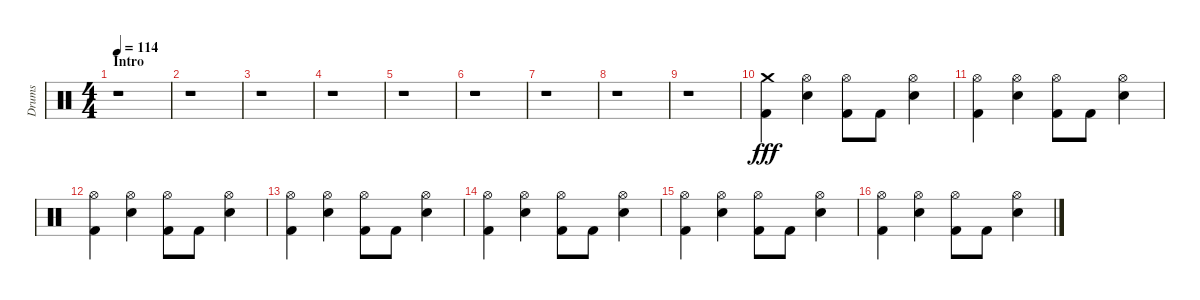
\track ("Drums" "Drums") {instrument percussion}
\staff {score}
\articulation defaults
\ts (4 4)
\section ("" "Intro")
\tempo 114
\clef neutral
\ks c
r.1{dy fff} |
r.1 |
r.1 |
r.1 |
r.1 |
r.1 |
r.1 |
r.1 |
r.1 |
("Crash medium (hit)" "Kick (hit) 2").4 ("Hi-Hat (open)" "Snare (hit) 2").4 ("Hi-Hat (open)" "Kick (hit) 2").8 "Kick (hit) 2".8 ("Hi-Hat (open)" "Snare (hit) 2").4 |
("Hi-Hat (open)" "Kick (hit) 2").4 ("Hi-Hat (open)" "Snare (hit) 2").4 ("Hi-Hat (open)" "Kick (hit) 2").8 "Kick (hit) 2".8 ("Hi-Hat (open)" "Snare (hit) 2").4 |
("Hi-Hat (open)" "Kick (hit) 2").4 ("Hi-Hat (open)" "Snare (hit) 2").4 ("Hi-Hat (open)" "Kick (hit) 2").8 "Kick (hit) 2".8 ("Hi-Hat (open)" "Snare (hit) 2").4 |
("Hi-Hat (open)" "Kick (hit) 2").4 ("Hi-Hat (open)" "Snare (hit) 2").4 ("Hi-Hat (open)" "Kick (hit) 2").8 "Kick (hit) 2".8 ("Hi-Hat (open)" "Snare (hit) 2").4 |
("Hi-Hat (open)" "Kick (hit) 2").4 ("Hi-Hat (open)" "Snare (hit) 2").4 ("Hi-Hat (open)" "Kick (hit) 2").8 "Kick (hit) 2".8 ("Hi-Hat (open)" "Snare (hit) 2").4 |
("Hi-Hat (open)" "Kick (hit) 2").4 ("Hi-Hat (open)" "Snare (hit) 2").4 ("Hi-Hat (open)" "Kick (hit) 2").8 "Kick (hit) 2".8 ("Hi-Hat (open)" "Snare (hit) 2").4 |
("Hi-Hat (open)" "Kick (hit) 2").4 ("Hi-Hat (open)" "Snare (hit) 2").4 ("Hi-Hat (open)" "Kick (hit) 2").8 "Kick (hit) 2".8 ("Hi-Hat (open)" "Snare (hit) 2").4
